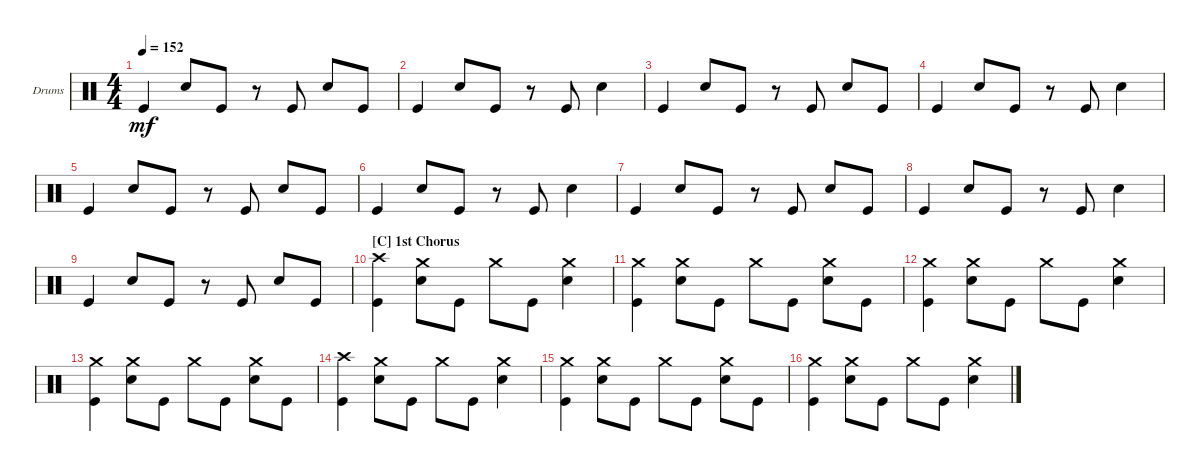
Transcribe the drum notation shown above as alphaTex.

\defaultSystemsLayout 4
\bracketExtendMode groupsimilarinstruments
\firstSystemTrackNameOrientation horizontal
\otherSystemsTrackNameOrientation horizontal
\track ("Drums" "Drums") {instrument percussion}
\staff {score}
\articulation defaults
\ts (4 4)
\tempo 152
\clef neutral
\ks c "Kick (hit)".4{dy mf} "Snare (hit) 2".8 "Kick (hit)".8
r.8 "Kick (hit)".8 "Snare (hit) 2".8 "Kick (hit)".8 |
"Kick (hit)".4 "Snare (hit) 2".8 "Kick (hit)".8 r.8 "Kick (hit)".8 "Snare (hit) 2".4 |
"Kick (hit)".4 "Snare (hit) 2".8 "Kick (hit)".8 r.8 "Kick (hit)".8 "Snare (hit) 2".8 "Kick (hit)".8 |
"Kick (hit)".4 "Snare (hit) 2".8 "Kick (hit)".8 r.8 "Kick (hit)".8 "Snare (hit) 2".4 |
"Kick (hit)".4 "Snare (hit) 2".8 "Kick (hit)".8 r.8 "Kick (hit)".8 "Snare (hit) 2".8 "Kick (hit)".8 |
"Kick (hit)".4 "Snare (hit) 2".8 "Kick (hit)".8 r.8 "Kick (hit)".8 "Snare (hit) 2".4 |
"Kick (hit)".4 "Snare (hit) 2".8 "Kick (hit)".8 r.8 "Kick (hit)".8 "Snare (hit) 2".8 "Kick (hit)".8 |
"Kick (hit)".4 "Snare (hit) 2".8 "Kick (hit)".8 r.8 "Kick (hit)".8 "Snare (hit) 2".4 |
"Kick (hit)".4 "Snare (hit) 2".8 "Kick (hit)".8 r.8 "Kick (hit)".8 "Snare (hit) 2".8 "Kick (hit)".8 |
\section ("C" "1st Chorus")
("Kick (hit)" "Crash high (hit)").4 ("Snare (hit) 2" "Crash medium (hit)").8 "Kick (hit)".8 "Crash medium (hit)".8 "Kick (hit)".8 ("Snare (hit) 2" "Crash medium (hit)").4 |
("Kick (hit)" "Crash medium (hit)").4 ("Snare (hit) 2" "Crash medium (hit)").8 "Kick (hit)".8 "Crash medium (hit)".8 "Kick (hit)".8 ("Snare (hit) 2" "Crash medium (hit)").8 "Kick (hit)".8 |
("Kick (hit)" "Crash medium (hit)").4 ("Snare (hit) 2" "Crash medium (hit)").8 "Kick (hit)".8 "Crash medium (hit)".8 "Kick (hit)".8 ("Snare (hit) 2" "Crash medium (hit)").4 |
("Kick (hit)" "Crash medium (hit)").4 ("Snare (hit) 2" "Crash medium (hit)").8 "Kick (hit)".8 "Crash medium (hit)".8 "Kick (hit)".8 ("Snare (hit) 2" "Crash medium (hit)").8 "Kick (hit)".8 |
("Kick (hit)" "Crash high (hit)").4 ("Snare (hit) 2" "Crash medium (hit)").8 "Kick (hit)".8 "Crash medium (hit)".8 "Kick (hit)".8 ("Snare (hit) 2" "Crash medium (hit)").4 |
("Kick (hit)" "Crash medium (hit)").4 ("Snare (hit) 2" "Crash medium (hit)").8 "Kick (hit)".8 "Crash medium (hit)".8 "Kick (hit)".8 ("Snare (hit) 2" "Crash medium (hit)").8 "Kick (hit)".8 |
("Kick (hit)" "Crash medium (hit)").4 ("Snare (hit) 2" "Crash medium (hit)").8 "Kick (hit)".8 "Crash medium (hit)".8 "Kick (hit)".8 ("Snare (hit) 2" "Crash medium (hit)").4
